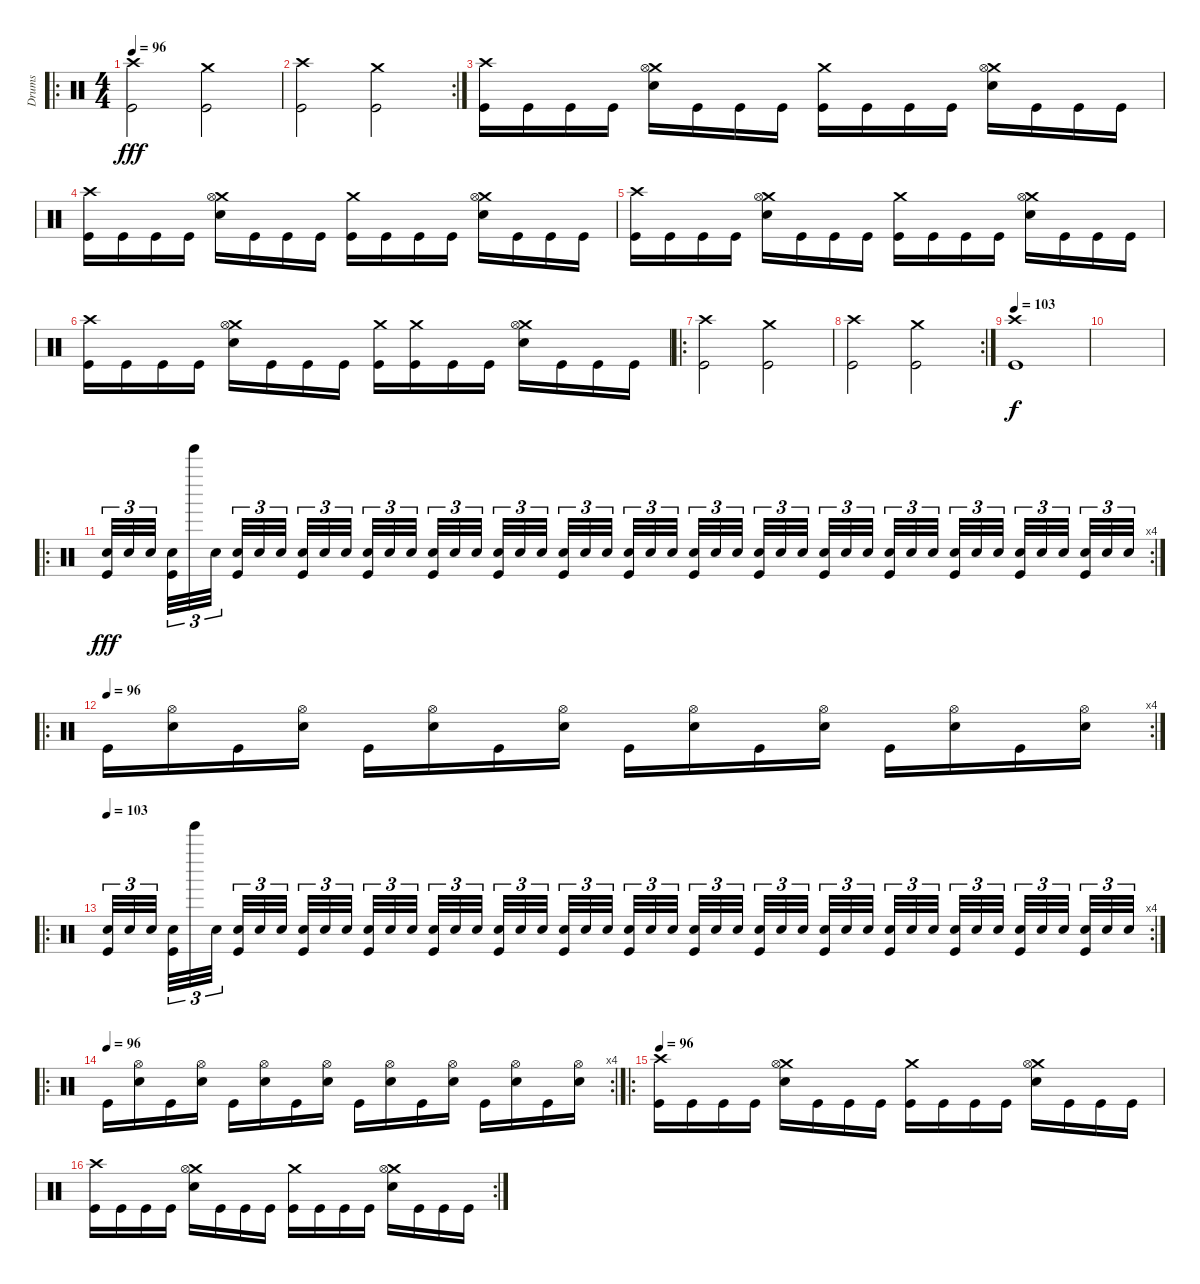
\track ("Drums" "Drums") {instrument percussion}
\staff {score}
\articulation defaults
\ro
\ts (4 4)
\tempo 96
\clef neutral
\ks c
("Crash high (hit)" "Kick (hit)").2{dy fff} ("Crash medium (hit)" "Kick (hit)").2 |
\rc 2
("Crash high (hit)" "Kick (hit)").2 ("Crash medium (hit)" "Kick (hit)").2 |
("Crash high (hit)" "Kick (hit)").16 "Kick (hit)".16 "Kick (hit)".16 "Kick (hit)".16 ("Crash medium (hit)" "Hi-Hat (open)" "Snare (hit) 2").16 "Kick (hit)".16 "Kick (hit)".16 "Kick (hit)".16 ("Crash medium (hit)" "Kick (hit)").16 "Kick (hit)".16 "Kick (hit)".16 "Kick (hit)".16 ("Crash medium (hit)" "Hi-Hat (open)" "Snare (hit) 2").16 "Kick (hit)".16 "Kick (hit)".16 "Kick (hit)".16 |
("Crash high (hit)" "Kick (hit)").16 "Kick (hit)".16 "Kick (hit)".16 "Kick (hit)".16 ("Crash medium (hit)" "Hi-Hat (open)" "Snare (hit) 2").16 "Kick (hit)".16 "Kick (hit)".16 "Kick (hit)".16 ("Crash medium (hit)" "Kick (hit)").16 "Kick (hit)".16 "Kick (hit)".16 "Kick (hit)".16 ("Crash medium (hit)" "Hi-Hat (open)" "Snare (hit) 2").16 "Kick (hit)".16 "Kick (hit)".16 "Kick (hit)".16 |
("Crash high (hit)" "Kick (hit)").16 "Kick (hit)".16 "Kick (hit)".16 "Kick (hit)".16 ("Crash medium (hit)" "Hi-Hat (open)" "Snare (hit) 2").16 "Kick (hit)".16 "Kick (hit)".16 "Kick (hit)".16 ("Crash medium (hit)" "Kick (hit)").16 "Kick (hit)".16 "Kick (hit)".16 "Kick (hit)".16 ("Crash medium (hit)" "Hi-Hat (open)" "Snare (hit) 2").16 "Kick (hit)".16 "Kick (hit)".16 "Kick (hit)".16 |
("Crash high (hit)" "Kick (hit)").16 "Kick (hit)".16 "Kick (hit)".16 "Kick (hit)".16 ("Crash medium (hit)" "Hi-Hat (open)" "Snare (hit) 2").16 "Kick (hit)".16 "Kick (hit)".16 "Kick (hit)".16 ("Crash medium (hit)" "Kick (hit)").16 ("Crash medium (hit)" "Kick (hit)").16 "Kick (hit)".16 "Kick (hit)".16 ("Crash medium (hit)" "Hi-Hat (open)" "Snare (hit) 2").16 "Kick (hit)".16 "Kick (hit)".16 "Kick (hit)".16 |
\ro
("Crash high (hit)" "Kick (hit)").2 ("Crash medium (hit)" "Kick (hit)").2 |
\rc 2
("Crash high (hit)" "Kick (hit)").2 ("Crash medium (hit)" "Kick (hit)").2 |
\tempo 103
("Crash high (hit)" "Kick (hit)").1{dy f} |
|
\ro
\rc 4
("Kick (hit)" "Snare (hit) 2").32{tu (3 2) dy fff} "Snare (hit) 2".32{tu (3 2)} "Snare (hit) 2".32{tu (3 2)} ("Kick (hit)" "Snare (hit) 2").32{tu (3 2)} "Tinkle Bell (hit)".32{tu (3 2)} "Snare (hit) 2".32{tu (3 2)} ("Kick (hit)" "Snare (hit) 2").32{tu (3 2)} "Snare (hit) 2".32{tu (3 2)} "Snare (hit) 2".32{tu (3 2)} ("Kick (hit)" "Snare (hit) 2").32{tu (3 2)} "Snare (hit) 2".32{tu (3 2)} "Snare (hit) 2".32{tu (3 2)} ("Kick (hit)" "Snare (hit) 2").32{tu (3 2)} "Snare (hit) 2".32{tu (3 2)} "Snare (hit) 2".32{tu (3 2)} ("Kick (hit)" "Snare (hit) 2").32{tu (3 2)} "Snare (hit) 2".32{tu (3 2)} "Snare (hit) 2".32{tu (3 2)} ("Kick (hit)" "Snare (hit) 2").32{tu (3 2)} "Snare (hit) 2".32{tu (3 2)} "Snare (hit) 2".32{tu (3 2)} ("Kick (hit)" "Snare (hit) 2").32{tu (3 2)} "Snare (hit) 2".32{tu (3 2)} "Snare (hit) 2".32{tu (3 2)} ("Kick (hit)" "Snare (hit) 2").32{tu (3 2)} "Snare (hit) 2".32{tu (3 2)} "Snare (hit) 2".32{tu (3 2)} ("Kick (hit)" "Snare (hit) 2").32{tu (3 2)} "Snare (hit) 2".32{tu (3 2)} "Snare (hit) 2".32{tu (3 2)} ("Kick (hit)" "Snare (hit) 2").32{tu (3 2)} "Snare (hit) 2".32{tu (3 2)} "Snare (hit) 2".32{tu (3 2)} ("Kick (hit)" "Snare (hit) 2").32{tu (3 2)} "Snare (hit) 2".32{tu (3 2)} "Snare (hit) 2".32{tu (3 2)} ("Kick (hit)" "Snare (hit) 2").32{tu (3 2)} "Snare (hit) 2".32{tu (3 2)} "Snare (hit) 2".32{tu (3 2)} ("Kick (hit)" "Snare (hit) 2").32{tu (3 2)} "Snare (hit) 2".32{tu (3 2)} "Snare (hit) 2".32{tu (3 2)} ("Kick (hit)" "Snare (hit) 2").32{tu (3 2)} "Snare (hit) 2".32{tu (3 2)} "Snare (hit) 2".32{tu (3 2)} ("Kick (hit)" "Snare (hit) 2").32{tu (3 2)} "Snare (hit) 2".32{tu (3 2)} "Snare (hit) 2".32{tu (3 2)} |
\ro
\rc 4
\tempo (96)
"Kick (hit)".16 ("Hi-Hat (open)" "Snare (hit) 2").16 "Kick (hit)".16 ("Hi-Hat (open)" "Snare (hit) 2").16 "Kick (hit)".16 ("Hi-Hat (open)" "Snare (hit) 2").16 "Kick (hit)".16 ("Hi-Hat (open)" "Snare (hit) 2").16 "Kick (hit)".16 ("Hi-Hat (open)" "Snare (hit) 2").16 "Kick (hit)".16 ("Hi-Hat (open)" "Snare (hit) 2").16 "Kick (hit)".16 ("Hi-Hat (open)" "Snare (hit) 2").16 "Kick (hit)".16 ("Hi-Hat (open)" "Snare (hit) 2").16 |
\ro
\rc 4
\tempo 103
("Kick (hit)" "Snare (hit) 2").32{tu (3 2)} "Snare (hit) 2".32{tu (3 2)} "Snare (hit) 2".32{tu (3 2)} ("Kick (hit)" "Snare (hit) 2").32{tu (3 2)} "Tinkle Bell (hit)".32{tu (3 2)} "Snare (hit) 2".32{tu (3 2)} ("Kick (hit)" "Snare (hit) 2").32{tu (3 2)} "Snare (hit) 2".32{tu (3 2)} "Snare (hit) 2".32{tu (3 2)} ("Kick (hit)" "Snare (hit) 2").32{tu (3 2)} "Snare (hit) 2".32{tu (3 2)} "Snare (hit) 2".32{tu (3 2)} ("Kick (hit)" "Snare (hit) 2").32{tu (3 2)} "Snare (hit) 2".32{tu (3 2)} "Snare (hit) 2".32{tu (3 2)} ("Kick (hit)" "Snare (hit) 2").32{tu (3 2)} "Snare (hit) 2".32{tu (3 2)} "Snare (hit) 2".32{tu (3 2)} ("Kick (hit)" "Snare (hit) 2").32{tu (3 2)} "Snare (hit) 2".32{tu (3 2)} "Snare (hit) 2".32{tu (3 2)} ("Kick (hit)" "Snare (hit) 2").32{tu (3 2)} "Snare (hit) 2".32{tu (3 2)} "Snare (hit) 2".32{tu (3 2)} ("Kick (hit)" "Snare (hit) 2").32{tu (3 2)} "Snare (hit) 2".32{tu (3 2)} "Snare (hit) 2".32{tu (3 2)} ("Kick (hit)" "Snare (hit) 2").32{tu (3 2)} "Snare (hit) 2".32{tu (3 2)} "Snare (hit) 2".32{tu (3 2)} ("Kick (hit)" "Snare (hit) 2").32{tu (3 2)} "Snare (hit) 2".32{tu (3 2)} "Snare (hit) 2".32{tu (3 2)} ("Kick (hit)" "Snare (hit) 2").32{tu (3 2)} "Snare (hit) 2".32{tu (3 2)} "Snare (hit) 2".32{tu (3 2)} ("Kick (hit)" "Snare (hit) 2").32{tu (3 2)} "Snare (hit) 2".32{tu (3 2)} "Snare (hit) 2".32{tu (3 2)} ("Kick (hit)" "Snare (hit) 2").32{tu (3 2)} "Snare (hit) 2".32{tu (3 2)} "Snare (hit) 2".32{tu (3 2)} ("Kick (hit)" "Snare (hit) 2").32{tu (3 2)} "Snare (hit) 2".32{tu (3 2)} "Snare (hit) 2".32{tu (3 2)} ("Kick (hit)" "Snare (hit) 2").32{tu (3 2)} "Snare (hit) 2".32{tu (3 2)} "Snare (hit) 2".32{tu (3 2)} |
\ro
\rc 4
\tempo (96)
"Kick (hit)".16 ("Hi-Hat (open)" "Snare (hit) 2").16 "Kick (hit)".16 ("Hi-Hat (open)" "Snare (hit) 2").16 "Kick (hit)".16 ("Hi-Hat (open)" "Snare (hit) 2").16 "Kick (hit)".16 ("Hi-Hat (open)" "Snare (hit) 2").16 "Kick (hit)".16 ("Hi-Hat (open)" "Snare (hit) 2").16 "Kick (hit)".16 ("Hi-Hat (open)" "Snare (hit) 2").16 "Kick (hit)".16 ("Hi-Hat (open)" "Snare (hit) 2").16 "Kick (hit)".16 ("Hi-Hat (open)" "Snare (hit) 2").16 |
\ro
\tempo 96
("Crash high (hit)" "Kick (hit)").16 "Kick (hit)".16 "Kick (hit)".16 "Kick (hit)".16 ("Crash medium (hit)" "Hi-Hat (open)" "Snare (hit) 2").16 "Kick (hit)".16 "Kick (hit)".16 "Kick (hit)".16 ("Crash medium (hit)" "Kick (hit)").16 "Kick (hit)".16 "Kick (hit)".16 "Kick (hit)".16 ("Crash medium (hit)" "Hi-Hat (open)" "Snare (hit) 2").16 "Kick (hit)".16 "Kick (hit)".16 "Kick (hit)".16 |
\rc 2
("Crash high (hit)" "Kick (hit)").16 "Kick (hit)".16 "Kick (hit)".16 "Kick (hit)".16 ("Crash medium (hit)" "Hi-Hat (open)" "Snare (hit) 2").16 "Kick (hit)".16 "Kick (hit)".16 "Kick (hit)".16 ("Crash medium (hit)" "Kick (hit)").16 "Kick (hit)".16 "Kick (hit)".16 "Kick (hit)".16 ("Crash medium (hit)" "Hi-Hat (open)" "Snare (hit) 2").16 "Kick (hit)".16 "Kick (hit)".16 "Kick (hit)".16
